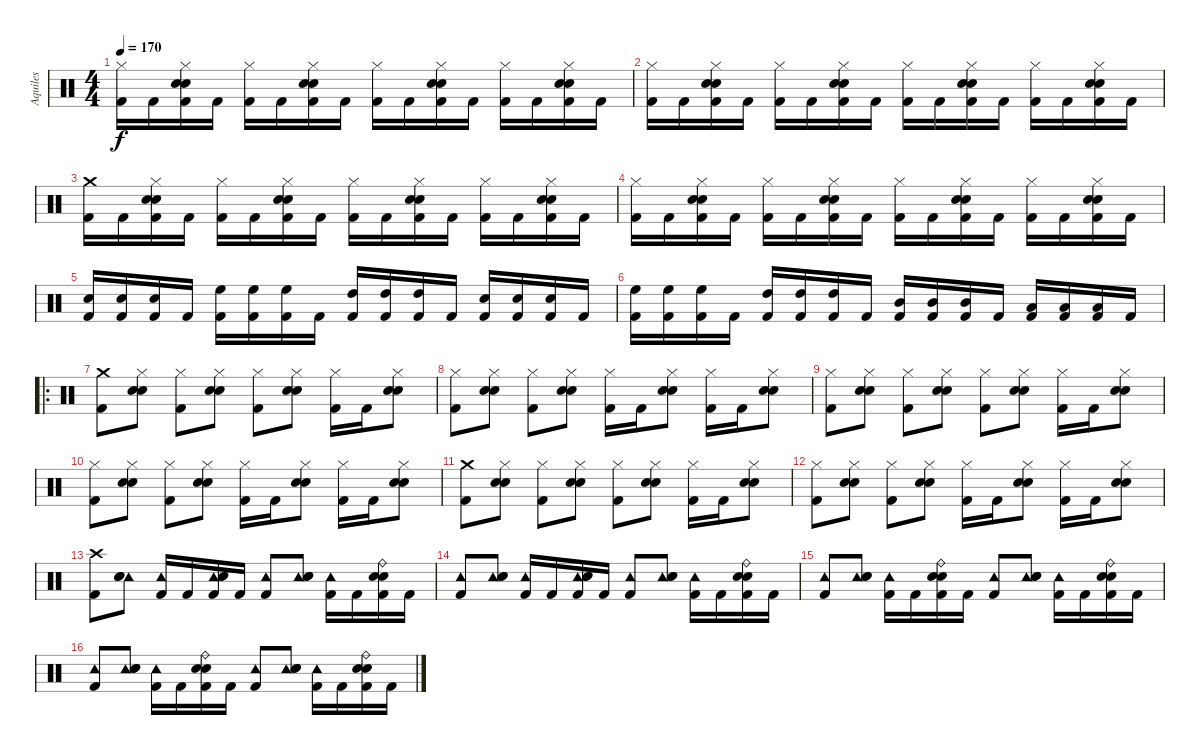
\track ("Aquiles" "Aquiles") {instrument percussion}
\staff {score}
\articulation defaults
\ts (4 4)
\tempo 170
\clef neutral
\ks c
("Hi-Hat (closed)" "Kick (hit) 2").16{dy f} "Kick (hit) 2".16 ("Hi-Hat (closed)" "Electric Snare (hit)" "Snare (hit) 2" "Kick (hit) 2").16 "Kick (hit) 2".16 ("Hi-Hat (closed)" "Kick (hit) 2").16 "Kick (hit) 2".16 ("Hi-Hat (closed)" "Electric Snare (hit)" "Snare (hit) 2" "Kick (hit) 2").16 "Kick (hit) 2".16 ("Hi-Hat (closed)" "Kick (hit) 2").16 "Kick (hit) 2".16 ("Hi-Hat (closed)" "Electric Snare (hit)" "Snare (hit) 2" "Kick (hit) 2").16 "Kick (hit) 2".16 ("Hi-Hat (closed)" "Kick (hit) 2").16 "Kick (hit) 2".16 ("Hi-Hat (closed)" "Electric Snare (hit)" "Snare (hit) 2" "Kick (hit) 2").16 "Kick (hit) 2".16 |
("Hi-Hat (closed)" "Kick (hit) 2").16 "Kick (hit) 2".16 ("Hi-Hat (closed)" "Electric Snare (hit)" "Snare (hit) 2" "Kick (hit) 2").16 "Kick (hit) 2".16 ("Hi-Hat (closed)" "Kick (hit) 2").16 "Kick (hit) 2".16 ("Hi-Hat (closed)" "Electric Snare (hit)" "Snare (hit) 2" "Kick (hit) 2").16 "Kick (hit) 2".16 ("Hi-Hat (closed)" "Kick (hit) 2").16 "Kick (hit) 2".16 ("Hi-Hat (closed)" "Electric Snare (hit)" "Snare (hit) 2" "Kick (hit) 2").16 "Kick (hit) 2".16 ("Hi-Hat (closed)" "Kick (hit) 2").16 "Kick (hit) 2".16 ("Hi-Hat (closed)" "Electric Snare (hit)" "Snare (hit) 2" "Kick (hit) 2").16 "Kick (hit) 2".16 |
("Crash medium (hit)" "Kick (hit) 2").16 "Kick (hit) 2".16 ("Hi-Hat (closed)" "Electric Snare (hit)" "Snare (hit) 2" "Kick (hit) 2").16 "Kick (hit) 2".16 ("Hi-Hat (closed)" "Kick (hit) 2").16 "Kick (hit) 2".16 ("Hi-Hat (closed)" "Electric Snare (hit)" "Snare (hit) 2" "Kick (hit) 2").16 "Kick (hit) 2".16 ("Hi-Hat (closed)" "Kick (hit) 2").16 "Kick (hit) 2".16 ("Hi-Hat (closed)" "Electric Snare (hit)" "Snare (hit) 2" "Kick (hit) 2").16 "Kick (hit) 2".16 ("Hi-Hat (closed)" "Kick (hit) 2").16 "Kick (hit) 2".16 ("Hi-Hat (closed)" "Electric Snare (hit)" "Snare (hit) 2" "Kick (hit) 2").16 "Kick (hit) 2".16 |
("Hi-Hat (closed)" "Kick (hit) 2").16 "Kick (hit) 2".16 ("Hi-Hat (closed)" "Electric Snare (hit)" "Snare (hit) 2" "Kick (hit) 2").16 "Kick (hit) 2".16 ("Hi-Hat (closed)" "Kick (hit) 2").16 "Kick (hit) 2".16 ("Hi-Hat (closed)" "Electric Snare (hit)" "Snare (hit) 2" "Kick (hit) 2").16 "Kick (hit) 2".16 ("Hi-Hat (closed)" "Kick (hit) 2").16 "Kick (hit) 2".16 ("Hi-Hat (closed)" "Electric Snare (hit)" "Snare (hit) 2" "Kick (hit) 2").16 "Kick (hit) 2".16 ("Hi-Hat (closed)" "Kick (hit) 2").16 "Kick (hit) 2".16 ("Hi-Hat (closed)" "Electric Snare (hit)" "Snare (hit) 2" "Kick (hit) 2").16 "Kick (hit) 2".16 |
("Electric Snare (hit)" "Kick (hit) 2").16 ("Electric Snare (hit)" "Kick (hit) 2").16 ("Electric Snare (hit)" "Kick (hit) 2").16 "Kick (hit) 2".16 ("High Floor Tom (hit)" "Kick (hit) 2").16 ("High Floor Tom (hit)" "Kick (hit) 2").16 ("High Floor Tom (hit)" "Kick (hit) 2").16 "Kick (hit) 2".16 ("High Tom (hit)" "Kick (hit) 2").16 ("High Tom (hit)" "Kick (hit) 2").16 ("High Tom (hit)" "Kick (hit) 2").16 "Kick (hit) 2".16 ("Electric Snare (hit)" "Kick (hit) 2").16 ("Electric Snare (hit)" "Kick (hit) 2").16 ("Electric Snare (hit)" "Kick (hit) 2").16 "Kick (hit) 2".16 |
("High Floor Tom (hit)" "Kick (hit) 2").16 ("High Floor Tom (hit)" "Kick (hit) 2").16 ("High Floor Tom (hit)" "Kick (hit) 2").16 "Kick (hit) 2".16 ("High Tom (hit)" "Kick (hit) 2").16 ("High Tom (hit)" "Kick (hit) 2").16 ("High Tom (hit)" "Kick (hit) 2").16 "Kick (hit) 2".16 ("Mid Tom (hit)" "Kick (hit) 2").16 ("Mid Tom (hit)" "Kick (hit) 2").16 ("Mid Tom (hit)" "Kick (hit) 2").16 "Kick (hit) 2".16 ("Low Tom (hit)" "Kick (hit) 2").16 ("Low Tom (hit)" "Kick (hit) 2").16 ("Low Tom (hit)" "Kick (hit) 2").16 "Kick (hit) 2".16 |
\ro
("Crash medium (hit)" "Kick (hit) 2").8 ("Hi-Hat (closed)" "Electric Snare (hit)" "Snare (hit) 2").8 ("Hi-Hat (closed)" "Kick (hit) 2").8 ("Hi-Hat (closed)" "Electric Snare (hit)" "Snare (hit) 2").8 ("Hi-Hat (closed)" "Kick (hit) 2").8 ("Hi-Hat (closed)" "Electric Snare (hit)" "Snare (hit) 2").8 ("Hi-Hat (closed)" "Kick (hit) 2").16 "Kick (hit) 2".16 ("Hi-Hat (closed)" "Electric Snare (hit)" "Snare (hit) 2").8 |
("Hi-Hat (closed)" "Kick (hit) 2").8 ("Hi-Hat (closed)" "Electric Snare (hit)" "Snare (hit) 2").8 ("Hi-Hat (closed)" "Kick (hit) 2").8 ("Hi-Hat (closed)" "Electric Snare (hit)" "Snare (hit) 2").8 ("Hi-Hat (closed)" "Kick (hit) 2").16 "Kick (hit) 2".16 ("Hi-Hat (closed)" "Electric Snare (hit)" "Snare (hit) 2").8 ("Hi-Hat (closed)" "Kick (hit) 2").16 "Kick (hit) 2".16 ("Hi-Hat (closed)" "Electric Snare (hit)" "Snare (hit) 2").8 |
("Hi-Hat (closed)" "Kick (hit) 2").8 ("Hi-Hat (closed)" "Electric Snare (hit)" "Snare (hit) 2").8 ("Hi-Hat (closed)" "Kick (hit) 2").8 ("Hi-Hat (closed)" "Electric Snare (hit)" "Snare (hit) 2").8 ("Hi-Hat (closed)" "Kick (hit) 2").8 ("Hi-Hat (closed)" "Electric Snare (hit)" "Snare (hit) 2").8 ("Hi-Hat (closed)" "Kick (hit) 2").16 "Kick (hit) 2".16 ("Hi-Hat (closed)" "Electric Snare (hit)" "Snare (hit) 2").8 |
("Hi-Hat (closed)" "Kick (hit) 2").8 ("Hi-Hat (closed)" "Electric Snare (hit)" "Snare (hit) 2").8 ("Hi-Hat (closed)" "Kick (hit) 2").8 ("Hi-Hat (closed)" "Electric Snare (hit)" "Snare (hit) 2").8 ("Hi-Hat (closed)" "Kick (hit) 2").16 "Kick (hit) 2".16 ("Hi-Hat (closed)" "Electric Snare (hit)" "Snare (hit) 2").8 ("Hi-Hat (closed)" "Kick (hit) 2").16 "Kick (hit) 2".16 ("Hi-Hat (closed)" "Electric Snare (hit)" "Snare (hit) 2").8 |
("Crash medium (hit)" "Kick (hit) 2").8 ("Hi-Hat (closed)" "Electric Snare (hit)" "Snare (hit) 2").8 ("Hi-Hat (closed)" "Kick (hit) 2").8 ("Hi-Hat (closed)" "Electric Snare (hit)" "Snare (hit) 2").8 ("Hi-Hat (closed)" "Kick (hit) 2").8 ("Hi-Hat (closed)" "Electric Snare (hit)" "Snare (hit) 2").8 ("Hi-Hat (closed)" "Kick (hit) 2").16 "Kick (hit) 2".16 ("Hi-Hat (closed)" "Electric Snare (hit)" "Snare (hit) 2").8 |
("Hi-Hat (closed)" "Kick (hit) 2").8 ("Hi-Hat (closed)" "Electric Snare (hit)" "Snare (hit) 2").8 ("Hi-Hat (closed)" "Kick (hit) 2").8 ("Hi-Hat (closed)" "Electric Snare (hit)" "Snare (hit) 2").8 ("Hi-Hat (closed)" "Kick (hit) 2").16 "Kick (hit) 2".16 ("Hi-Hat (closed)" "Electric Snare (hit)" "Snare (hit) 2").8 ("Hi-Hat (closed)" "Kick (hit) 2").16 "Kick (hit) 2".16 ("Hi-Hat (closed)" "Electric Snare (hit)" "Snare (hit) 2").8 |
("Crash high (hit)" "Kick (hit) 2").8 ("Tambourine (hit)" "Electric Snare (hit)" "Snare (hit) 2").8 ("Tambourine (hit)" "Kick (hit) 2").16 "Kick (hit) 2".16 ("Tambourine (hit)" "Electric Snare (hit)" "Snare (hit) 2" "Kick (hit) 2").16 "Kick (hit) 2".16 ("Tambourine (hit)" "Kick (hit) 2").8 ("Tambourine (hit)" "Electric Snare (hit)" "Snare (hit) 2").8 ("Tambourine (hit)" "Kick (hit) 2").16 "Kick (hit) 2".16 ("Ride (bell)" "Electric Snare (hit)" "Snare (hit) 2" "Kick (hit) 2").16 "Kick (hit) 2".16 |
("Tambourine (hit)" "Kick (hit) 2").8 ("Tambourine (hit)" "Electric Snare (hit)" "Snare (hit) 2").8 ("Tambourine (hit)" "Kick (hit) 2").16 "Kick (hit) 2".16 ("Tambourine (hit)" "Electric Snare (hit)" "Snare (hit) 2" "Kick (hit) 2").16 "Kick (hit) 2".16 ("Tambourine (hit)" "Kick (hit) 2").8 ("Tambourine (hit)" "Electric Snare (hit)" "Snare (hit) 2").8 ("Tambourine (hit)" "Kick (hit) 2").16 "Kick (hit) 2".16 ("Ride (bell)" "Electric Snare (hit)" "Snare (hit) 2" "Kick (hit) 2").16 "Kick (hit) 2".16 |
("Tambourine (hit)" "Kick (hit) 2").8 ("Tambourine (hit)" "Electric Snare (hit)" "Snare (hit) 2").8 ("Tambourine (hit)" "Kick (hit) 2").16 "Kick (hit) 2".16 ("Ride (bell)" "Electric Snare (hit)" "Snare (hit) 2" "Kick (hit) 2").16 "Kick (hit) 2".16 ("Tambourine (hit)" "Kick (hit) 2").8 ("Tambourine (hit)" "Electric Snare (hit)" "Snare (hit) 2").8 ("Tambourine (hit)" "Kick (hit) 2").16 "Kick (hit) 2".16 ("Ride (bell)" "Electric Snare (hit)" "Snare (hit) 2" "Kick (hit) 2").16 "Kick (hit) 2".16 |
("Tambourine (hit)" "Kick (hit) 2").8 ("Tambourine (hit)" "Electric Snare (hit)" "Snare (hit) 2").8 ("Tambourine (hit)" "Kick (hit) 2").16 "Kick (hit) 2".16 ("Ride (bell)" "Electric Snare (hit)" "Snare (hit) 2" "Kick (hit) 2").16 "Kick (hit) 2".16 ("Tambourine (hit)" "Kick (hit) 2").8 ("Tambourine (hit)" "Electric Snare (hit)" "Snare (hit) 2").8 ("Tambourine (hit)" "Kick (hit) 2").16 "Kick (hit) 2".16 ("Ride (bell)" "Electric Snare (hit)" "Snare (hit) 2" "Kick (hit) 2").16 "Kick (hit) 2".16
